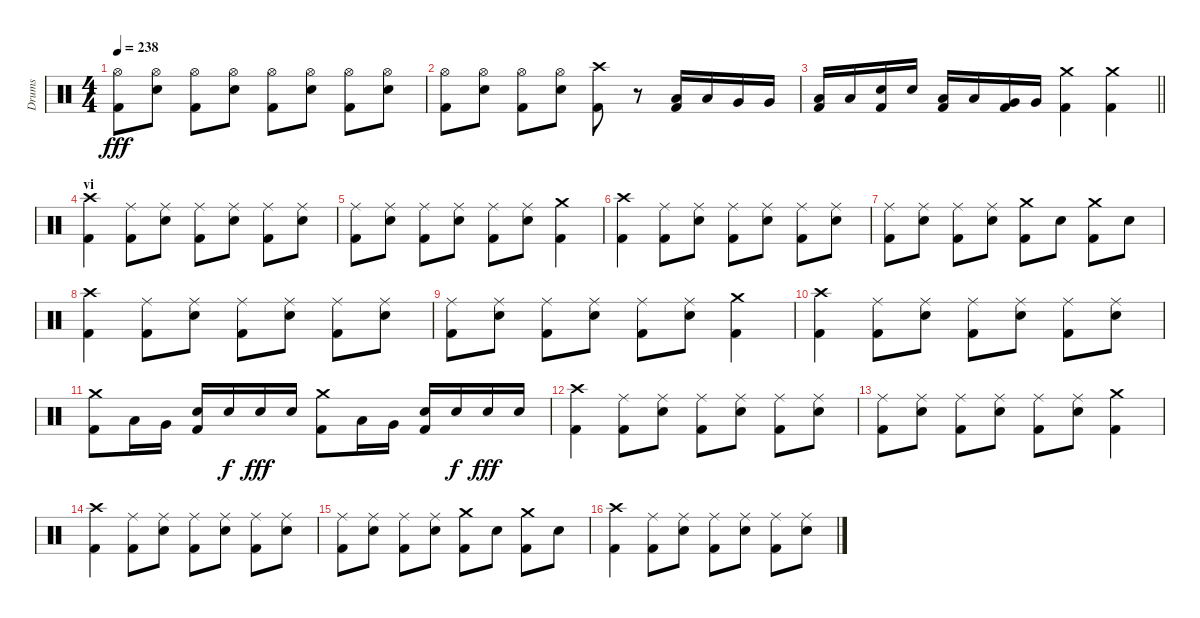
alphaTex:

\track ("Drums" "Drums") {instrument percussion}
\staff {score}
\articulation defaults
\ts (4 4)
\tempo 238
\clef neutral
\ks c
("Hi-Hat (open)" "Kick (hit) 2").8{dy fff} ("Hi-Hat (open)" "Electric Snare (hit)").8 ("Hi-Hat (open)" "Kick (hit) 2").8 ("Hi-Hat (open)" "Electric Snare (hit)").8 ("Hi-Hat (open)" "Kick (hit) 2").8 ("Hi-Hat (open)" "Electric Snare (hit)").8 ("Hi-Hat (open)" "Kick (hit) 2").8 ("Hi-Hat (open)" "Electric Snare (hit)").8 |
("Hi-Hat (open)" "Kick (hit) 2").8 ("Hi-Hat (open)" "Electric Snare (hit)").8 ("Hi-Hat (open)" "Kick (hit) 2").8 ("Hi-Hat (open)" "Electric Snare (hit)").8 ("Crash high (hit)" "Kick (hit) 2").8 r.8 ("Low Tom (hit)" "Kick (hit) 2").16 "Low Tom (hit)".16 "Very Low Tom (hit)".16 "Very Low Tom (hit)".16 |
\barLineRight lightlight
("Low Tom (hit)" "Kick (hit) 2").16 "Low Tom (hit)".16 ("Electric Snare (hit)" "Kick (hit) 2").16 "Electric Snare (hit)".16 ("Low Tom (hit)" "Kick (hit) 2").16 "Low Tom (hit)".16 ("Very Low Tom (hit)" "Kick (hit) 2").16 "Very Low Tom (hit)".16 ("Crash medium (hit)" "Kick (hit) 2").4 ("Crash medium (hit)" "Kick (hit) 2").4 |
\section ("" "vi")
("Crash high (hit)" "Kick (hit) 2").4 ("Ride (middle)" "Kick (hit) 2").8 ("Ride (middle)" "Electric Snare (hit)").8 ("Ride (middle)" "Kick (hit) 2").8 ("Ride (middle)" "Electric Snare (hit)").8 ("Ride (middle)" "Kick (hit) 2").8 ("Ride (middle)" "Electric Snare (hit)").8 |
("Ride (middle)" "Kick (hit) 2").8 ("Ride (middle)" "Electric Snare (hit)").8 ("Ride (middle)" "Kick (hit) 2").8 ("Ride (middle)" "Electric Snare (hit)").8 ("Ride (middle)" "Kick (hit) 2").8 ("Ride (middle)" "Electric Snare (hit)").8 ("Crash medium (hit)" "Kick (hit) 2").4 |
("Crash high (hit)" "Kick (hit) 2").4 ("Ride (middle)" "Kick (hit) 2").8 ("Ride (middle)" "Electric Snare (hit)").8 ("Ride (middle)" "Kick (hit) 2").8 ("Ride (middle)" "Electric Snare (hit)").8 ("Ride (middle)" "Kick (hit) 2").8 ("Ride (middle)" "Electric Snare (hit)").8 |
("Ride (middle)" "Kick (hit) 2").8 ("Ride (middle)" "Electric Snare (hit)").8 ("Ride (middle)" "Kick (hit) 2").8 ("Ride (middle)" "Electric Snare (hit)").8 ("Crash medium (hit)" "Kick (hit) 2").8 "Electric Snare (hit)".8 ("Crash medium (hit)" "Kick (hit) 2").8 "Electric Snare (hit)".8 |
("Crash high (hit)" "Kick (hit) 2").4 ("Ride (middle)" "Kick (hit) 2").8 ("Ride (middle)" "Electric Snare (hit)").8 ("Ride (middle)" "Kick (hit) 2").8 ("Ride (middle)" "Electric Snare (hit)").8 ("Ride (middle)" "Kick (hit) 2").8 ("Ride (middle)" "Electric Snare (hit)").8 |
("Ride (middle)" "Kick (hit) 2").8 ("Ride (middle)" "Electric Snare (hit)").8 ("Ride (middle)" "Kick (hit) 2").8 ("Ride (middle)" "Electric Snare (hit)").8 ("Ride (middle)" "Kick (hit) 2").8 ("Ride (middle)" "Electric Snare (hit)").8 ("Crash medium (hit)" "Kick (hit) 2").4 |
("Crash high (hit)" "Kick (hit) 2").4 ("Ride (middle)" "Kick (hit) 2").8 ("Ride (middle)" "Electric Snare (hit)").8 ("Ride (middle)" "Kick (hit) 2").8 ("Ride (middle)" "Electric Snare (hit)").8 ("Ride (middle)" "Kick (hit) 2").8 ("Ride (middle)" "Electric Snare (hit)").8 |
("Crash medium (hit)" "Kick (hit) 2").8 "Low Tom (hit)".16 "Very Low Tom (hit)".16 ("Electric Snare (hit)" "Kick (hit) 2").16 "Electric Snare (hit)".16{dy f} "Electric Snare (hit)".16{dy fff} "Electric Snare (hit)".16 ("Crash medium (hit)" "Kick (hit) 2").8 "Low Tom (hit)".16 "Very Low Tom (hit)".16 ("Electric Snare (hit)" "Kick (hit) 2").16 "Electric Snare (hit)".16{dy f} "Electric Snare (hit)".16{dy fff} "Electric Snare (hit)".16 |
("Crash high (hit)" "Kick (hit) 2").4 ("Ride (middle)" "Kick (hit) 2").8 ("Ride (middle)" "Electric Snare (hit)").8 ("Ride (middle)" "Kick (hit) 2").8 ("Ride (middle)" "Electric Snare (hit)").8 ("Ride (middle)" "Kick (hit) 2").8 ("Ride (middle)" "Electric Snare (hit)").8 |
("Ride (middle)" "Kick (hit) 2").8 ("Ride (middle)" "Electric Snare (hit)").8 ("Ride (middle)" "Kick (hit) 2").8 ("Ride (middle)" "Electric Snare (hit)").8 ("Ride (middle)" "Kick (hit) 2").8 ("Ride (middle)" "Electric Snare (hit)").8 ("Crash medium (hit)" "Kick (hit) 2").4 |
("Crash high (hit)" "Kick (hit) 2").4 ("Ride (middle)" "Kick (hit) 2").8 ("Ride (middle)" "Electric Snare (hit)").8 ("Ride (middle)" "Kick (hit) 2").8 ("Ride (middle)" "Electric Snare (hit)").8 ("Ride (middle)" "Kick (hit) 2").8 ("Ride (middle)" "Electric Snare (hit)").8 |
("Ride (middle)" "Kick (hit) 2").8 ("Ride (middle)" "Electric Snare (hit)").8 ("Ride (middle)" "Kick (hit) 2").8 ("Ride (middle)" "Electric Snare (hit)").8 ("Crash medium (hit)" "Kick (hit) 2").8 "Electric Snare (hit)".8 ("Crash medium (hit)" "Kick (hit) 2").8 "Electric Snare (hit)".8 |
("Crash high (hit)" "Kick (hit) 2").4 ("Ride (middle)" "Kick (hit) 2").8 ("Ride (middle)" "Electric Snare (hit)").8 ("Ride (middle)" "Kick (hit) 2").8 ("Ride (middle)" "Electric Snare (hit)").8 ("Ride (middle)" "Kick (hit) 2").8 ("Ride (middle)" "Electric Snare (hit)").8
